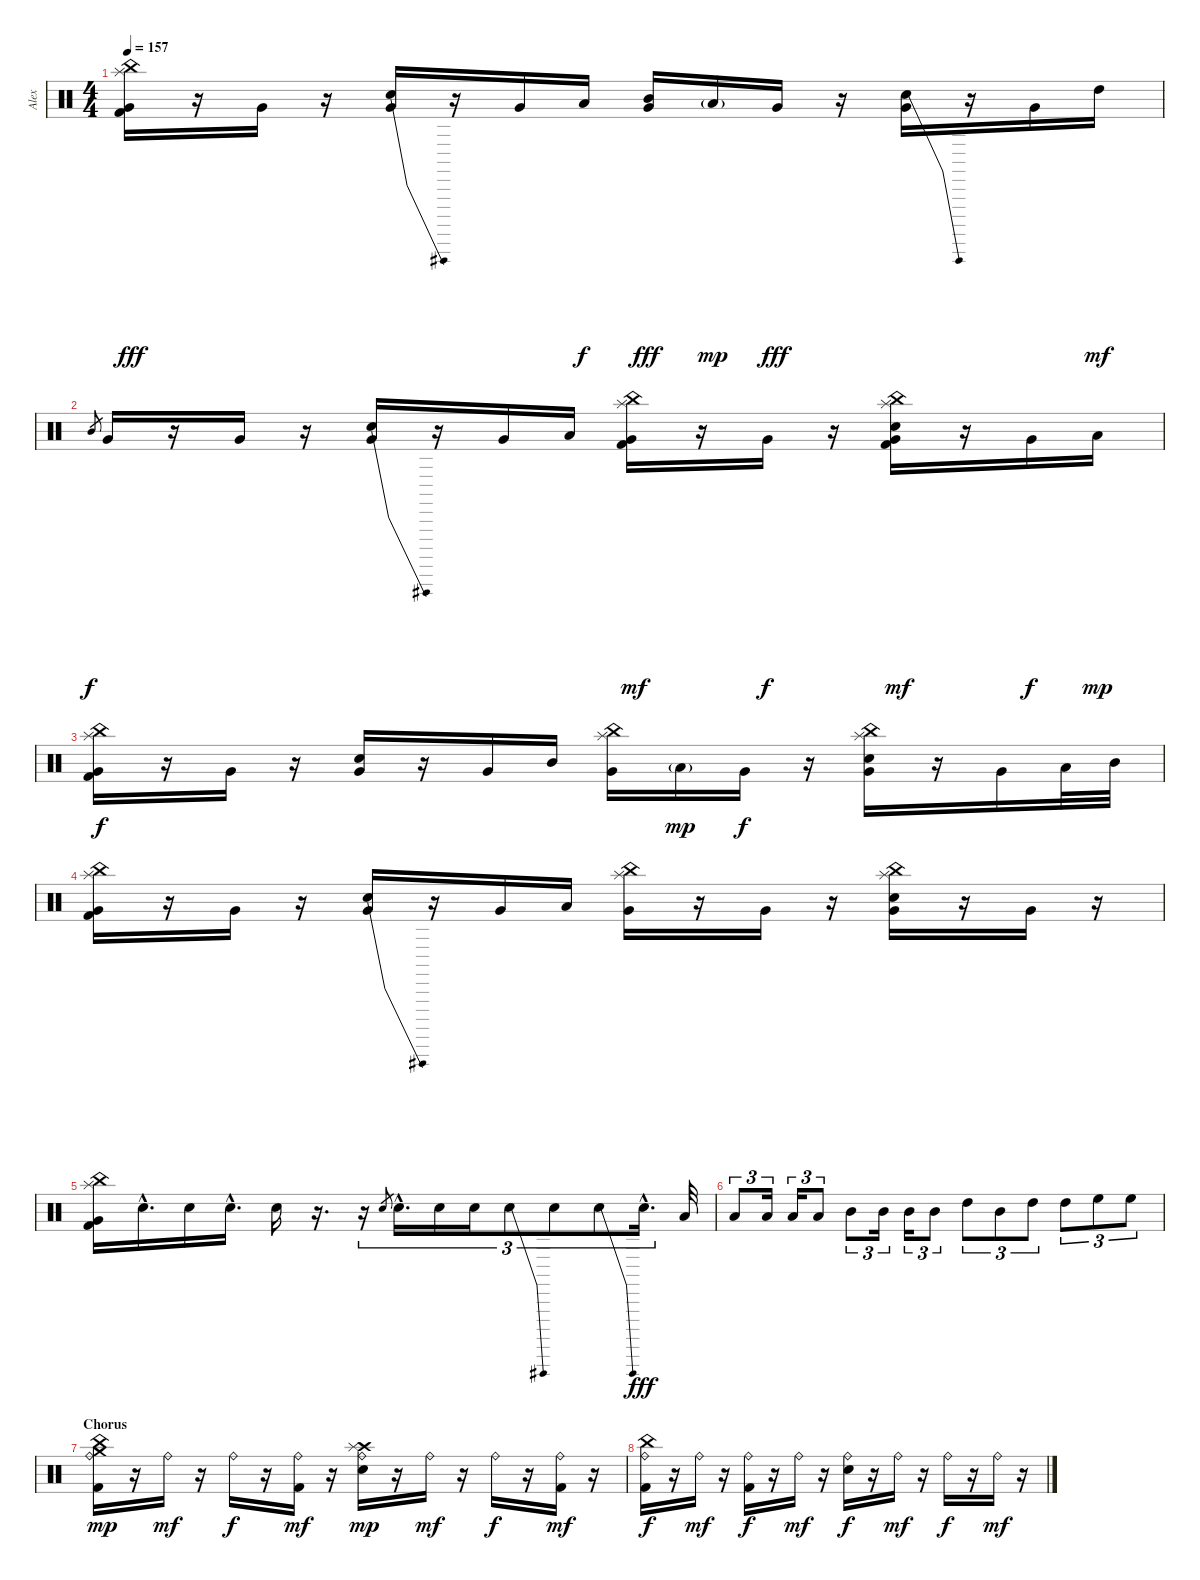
\track ("Alex" "Alex") {instrument percussion}
\staff {score}
\articulation defaults
\ts (4 4)
\tempo 157
\clef neutral
\ks c
("China (hit)" "Splash (hit)" "Very Low Tom (hit)" "Kick (hit) 2").16{dy fff} r.16 "Very Low Tom (hit)".16 r.16 ("Electric Snare (hit)"{be (bend 0 0 60 12)} "Very Low Tom (hit)").16 r.16 "Very Low Tom (hit)".16 "Low Tom (hit)".16{dy f} ("Mid Tom (hit)" "Very Low Tom (hit)").16{dy fff} "Low Tom (hit)"{g}.16{dy mp} "Very Low Tom (hit)".16{dy fff} r.16 ("Electric Snare (hit)"{be (bend 0 0 60 12)} "Very Low Tom (hit)").16 r.16 "Very Low Tom (hit)".16 "High Tom (hit)".16{dy mf} |
"Mid Tom (hit)".8{gr dy f} "Very Low Tom (hit)".16 r.16 "Very Low Tom (hit)".16 r.16 ("Electric Snare (hit)"{be (bend 0 0 60 12)} "Very Low Tom (hit)").16 r.16 "Very Low Tom (hit)".16 "Low Tom (hit)".16 ("Splash (hit)" "China (hit)" "Very Low Tom (hit)" "Kick (hit) 2").16{dy mf} r.16 "Very Low Tom (hit)".16{dy f} r.16 ("Splash (hit)" "China (hit)" "Electric Snare (hit)" "Very Low Tom (hit)" "Kick (hit) 2").16{dy mf} r.16 "Very Low Tom (hit)".16{dy f} "Low Tom (hit)".16{dy mp} |
("Splash (hit)" "China (hit)" "Very Low Tom (hit)" "Kick (hit) 2").16{dy f} r.16 "Very Low Tom (hit)".16 r.16 ("Electric Snare (hit)" "Very Low Tom (hit)").16 r.16 "Very Low Tom (hit)".16 "Mid Tom (hit)".16 ("Splash (hit)" "China (hit)" "Very Low Tom (hit)").16 "Low Tom (hit)"{g}.16{dy mp} "Very Low Tom (hit)".16{dy f} r.16 ("Splash (hit)" "China (hit)" "Electric Snare (hit)" "Very Low Tom (hit)").16 r.16 "Very Low Tom (hit)".16 "Low Tom (hit)".32 "Mid Tom (hit)".32 |
("Splash (hit)" "China (hit)" "Very Low Tom (hit)" "Kick (hit) 2").16 r.16 "Very Low Tom (hit)".16 r.16 ("Electric Snare (hit)"{be (bend 0 0 60 12)} "Very Low Tom (hit)").16 r.16 "Very Low Tom (hit)".16 "Low Tom (hit)".16 ("Splash (hit)" "China (hit)" "Very Low Tom (hit)").16 r.16 "Very Low Tom (hit)".16 r.16 ("Splash (hit)" "China (hit)" "Electric Snare (hit)" "Very Low Tom (hit)").16 r.16 "Very Low Tom (hit)".16 r.16 |
("Splash (hit)" "China (hit)" "Very Low Tom (hit)" "Kick (hit) 2").16 "Electric Snare (hit)"{hac}.16{d} "Electric Snare (hit)".16 "Electric Snare (hit)"{hac}.16{d} "Electric Snare (hit)".16 r.16{d} r.16{tu (3 2)} "Electric Snare (hit)".8{gr} "Electric Snare (hit)"{hac}.16{d tu (3 2)} "Electric Snare (hit)".16{tu (3 2)} "Electric Snare (hit)".16{tu (3 2)} "Electric Snare (hit)"{be (bend 0 0 60 12)}.8{tu (3 2)} "Electric Snare (hit)".8{tu (3 2)} "Electric Snare (hit)"{be (bend 0 0 60 12)}.8{tu (3 2)} "Electric Snare (hit)"{hac}.16{d tu (3 2) dy fff} "Low Tom (hit)".32 |
"Low Tom (hit)".8{tu (3 2)} "Low Tom (hit)".16{tu (3 2)} "Low Tom (hit)".16{tu (3 2)} "Low Tom (hit)".8{tu (3 2)} "Mid Tom (hit)".8{tu (3 2)} "Mid Tom (hit)".16{tu (3 2)} "Mid Tom (hit)".16{tu (3 2)} "Mid Tom (hit)".8{tu (3 2)} "High Tom (hit)".8{tu (3 2)} "Mid Tom (hit)".8{tu (3 2)} "High Tom (hit)".8{tu (3 2)} "High Tom (hit)".8{tu (3 2)} "High Floor Tom (hit)".8{tu (3 2)} "High Floor Tom (hit)".8{tu (3 2)} |
\section ("" "Chorus")
("China (hit)" "Crash medium (hit)" "Ride (bell)" "Kick (hit) 2").16{dy mp} r.16 "Ride (bell)".16{dy mf} r.16 "Ride (bell)".16{dy f} r.16 ("Ride (bell)" "Kick (hit) 2").16{dy mf} r.16 ("Crash high (hit)" "Splash (hit)" "Ride (bell)" "Electric Snare (hit)").16{dy mp} r.16 "Ride (bell)".16{dy mf} r.16 "Ride (bell)".16{dy f} r.16 ("Ride (bell)" "Kick (hit) 2").16{dy mf} r.16 |
("China (hit)" "Ride (bell)" "Kick (hit) 2").16{dy f} r.16 "Ride (bell)".16{dy mf} r.16 ("Ride (bell)" "Kick (hit) 2").16{dy f} r.16 "Ride (bell)".16{dy mf} r.16 ("Ride (bell)" "Electric Snare (hit)").16{dy f} r.16 "Ride (bell)".16{dy mf} r.16 "Ride (bell)".16{dy f} r.16 "Ride (bell)".16{dy mf} r.16
